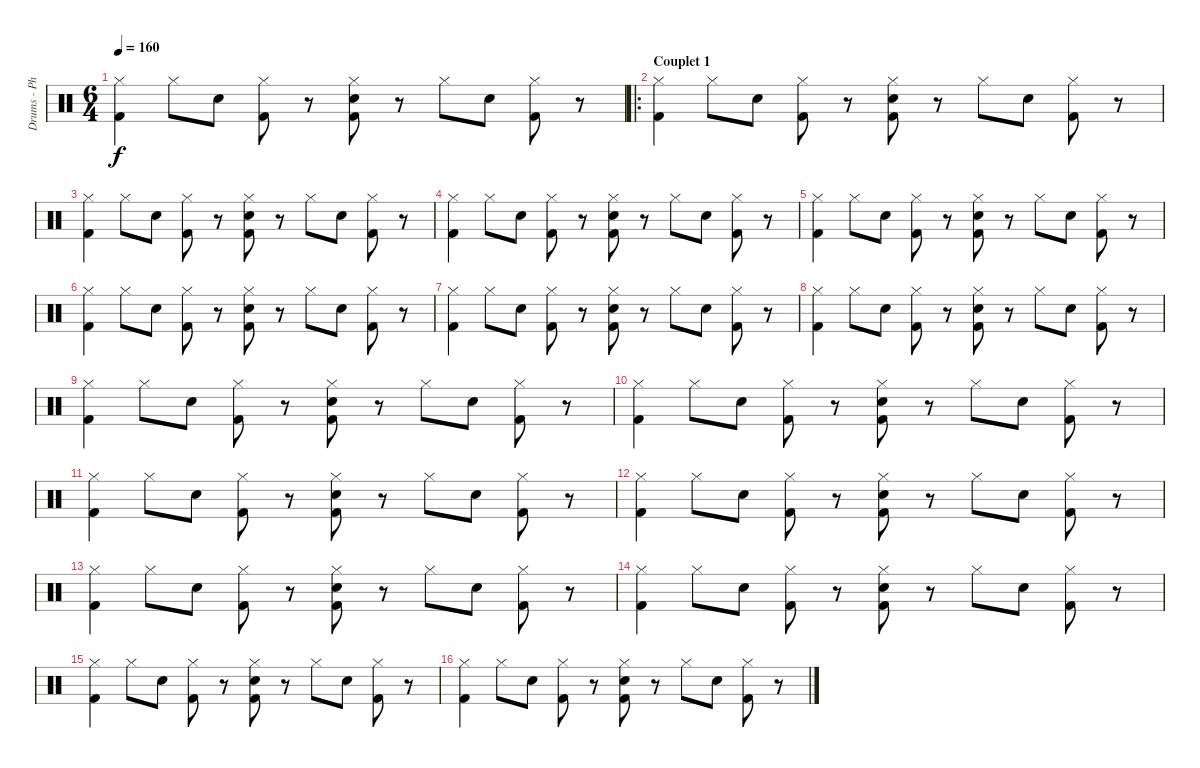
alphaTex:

\track ("Drums - Phil Selway" "Drums - Ph") {instrument percussion}
\staff {score}
\articulation defaults
\ts (6 4)
\tempo 160
\clef neutral
\ks c
("Hi-Hat (closed)" "Kick (hit) 2").4{dy f} "Hi-Hat (closed)".8 "Snare (hit) 2".8 ("Hi-Hat (closed)" "Kick (hit) 2").8 r.8 ("Hi-Hat (closed)" "Snare (hit) 2" "Kick (hit) 2").8 r.8 "Hi-Hat (closed)".8 "Snare (hit) 2".8 ("Hi-Hat (closed)" "Kick (hit) 2").8 r.8 |
\ro
\section ("" "Couplet 1")
("Hi-Hat (closed)" "Kick (hit) 2").4 "Hi-Hat (closed)".8 "Snare (hit) 2".8 ("Hi-Hat (closed)" "Kick (hit) 2").8 r.8 ("Hi-Hat (closed)" "Snare (hit) 2" "Kick (hit) 2").8 r.8 "Hi-Hat (closed)".8 "Snare (hit) 2".8 ("Hi-Hat (closed)" "Kick (hit) 2").8 r.8 |
("Hi-Hat (closed)" "Kick (hit) 2").4 "Hi-Hat (closed)".8 "Snare (hit) 2".8 ("Hi-Hat (closed)" "Kick (hit) 2").8 r.8 ("Hi-Hat (closed)" "Snare (hit) 2" "Kick (hit) 2").8 r.8 "Hi-Hat (closed)".8 "Snare (hit) 2".8 ("Hi-Hat (closed)" "Kick (hit) 2").8 r.8 |
("Hi-Hat (closed)" "Kick (hit) 2").4 "Hi-Hat (closed)".8 "Snare (hit) 2".8 ("Hi-Hat (closed)" "Kick (hit) 2").8 r.8 ("Hi-Hat (closed)" "Snare (hit) 2" "Kick (hit) 2").8 r.8 "Hi-Hat (closed)".8 "Snare (hit) 2".8 ("Hi-Hat (closed)" "Kick (hit) 2").8 r.8 |
("Hi-Hat (closed)" "Kick (hit) 2").4 "Hi-Hat (closed)".8 "Snare (hit) 2".8 ("Hi-Hat (closed)" "Kick (hit) 2").8 r.8 ("Hi-Hat (closed)" "Snare (hit) 2" "Kick (hit) 2").8 r.8 "Hi-Hat (closed)".8 "Snare (hit) 2".8 ("Hi-Hat (closed)" "Kick (hit) 2").8 r.8 |
("Hi-Hat (closed)" "Kick (hit) 2").4 "Hi-Hat (closed)".8 "Snare (hit) 2".8 ("Hi-Hat (closed)" "Kick (hit) 2").8 r.8 ("Hi-Hat (closed)" "Snare (hit) 2" "Kick (hit) 2").8 r.8 "Hi-Hat (closed)".8 "Snare (hit) 2".8 ("Hi-Hat (closed)" "Kick (hit) 2").8 r.8 |
("Hi-Hat (closed)" "Kick (hit) 2").4 "Hi-Hat (closed)".8 "Snare (hit) 2".8 ("Hi-Hat (closed)" "Kick (hit) 2").8 r.8 ("Hi-Hat (closed)" "Snare (hit) 2" "Kick (hit) 2").8 r.8 "Hi-Hat (closed)".8 "Snare (hit) 2".8 ("Hi-Hat (closed)" "Kick (hit) 2").8 r.8 |
("Hi-Hat (closed)" "Kick (hit) 2").4 "Hi-Hat (closed)".8 "Snare (hit) 2".8 ("Hi-Hat (closed)" "Kick (hit) 2").8 r.8 ("Hi-Hat (closed)" "Snare (hit) 2" "Kick (hit) 2").8 r.8 "Hi-Hat (closed)".8 "Snare (hit) 2".8 ("Hi-Hat (closed)" "Kick (hit) 2").8 r.8 |
("Hi-Hat (closed)" "Kick (hit) 2").4 "Hi-Hat (closed)".8 "Snare (hit) 2".8 ("Hi-Hat (closed)" "Kick (hit) 2").8 r.8 ("Hi-Hat (closed)" "Snare (hit) 2" "Kick (hit) 2").8 r.8 "Hi-Hat (closed)".8 "Snare (hit) 2".8 ("Hi-Hat (closed)" "Kick (hit) 2").8 r.8 |
("Hi-Hat (closed)" "Kick (hit) 2").4 "Hi-Hat (closed)".8 "Snare (hit) 2".8 ("Hi-Hat (closed)" "Kick (hit) 2").8 r.8 ("Hi-Hat (closed)" "Snare (hit) 2" "Kick (hit) 2").8 r.8 "Hi-Hat (closed)".8 "Snare (hit) 2".8 ("Hi-Hat (closed)" "Kick (hit) 2").8 r.8 |
("Hi-Hat (closed)" "Kick (hit) 2").4 "Hi-Hat (closed)".8 "Snare (hit) 2".8 ("Hi-Hat (closed)" "Kick (hit) 2").8 r.8 ("Hi-Hat (closed)" "Snare (hit) 2" "Kick (hit) 2").8 r.8 "Hi-Hat (closed)".8 "Snare (hit) 2".8 ("Hi-Hat (closed)" "Kick (hit) 2").8 r.8 |
("Hi-Hat (closed)" "Kick (hit) 2").4 "Hi-Hat (closed)".8 "Snare (hit) 2".8 ("Hi-Hat (closed)" "Kick (hit) 2").8 r.8 ("Hi-Hat (closed)" "Snare (hit) 2" "Kick (hit) 2").8 r.8 "Hi-Hat (closed)".8 "Snare (hit) 2".8 ("Hi-Hat (closed)" "Kick (hit) 2").8 r.8 |
("Hi-Hat (closed)" "Kick (hit) 2").4 "Hi-Hat (closed)".8 "Snare (hit) 2".8 ("Hi-Hat (closed)" "Kick (hit) 2").8 r.8 ("Hi-Hat (closed)" "Snare (hit) 2" "Kick (hit) 2").8 r.8 "Hi-Hat (closed)".8 "Snare (hit) 2".8 ("Hi-Hat (closed)" "Kick (hit) 2").8 r.8 |
("Hi-Hat (closed)" "Kick (hit) 2").4 "Hi-Hat (closed)".8 "Snare (hit) 2".8 ("Hi-Hat (closed)" "Kick (hit) 2").8 r.8 ("Hi-Hat (closed)" "Snare (hit) 2" "Kick (hit) 2").8 r.8 "Hi-Hat (closed)".8 "Snare (hit) 2".8 ("Hi-Hat (closed)" "Kick (hit) 2").8 r.8 |
("Hi-Hat (closed)" "Kick (hit) 2").4 "Hi-Hat (closed)".8 "Snare (hit) 2".8 ("Hi-Hat (closed)" "Kick (hit) 2").8 r.8 ("Hi-Hat (closed)" "Snare (hit) 2" "Kick (hit) 2").8 r.8 "Hi-Hat (closed)".8 "Snare (hit) 2".8 ("Hi-Hat (closed)" "Kick (hit) 2").8 r.8 |
("Hi-Hat (closed)" "Kick (hit) 2").4 "Hi-Hat (closed)".8 "Snare (hit) 2".8 ("Hi-Hat (closed)" "Kick (hit) 2").8 r.8 ("Hi-Hat (closed)" "Snare (hit) 2" "Kick (hit) 2").8 r.8 "Hi-Hat (closed)".8 "Snare (hit) 2".8 ("Hi-Hat (closed)" "Kick (hit) 2").8 r.8
